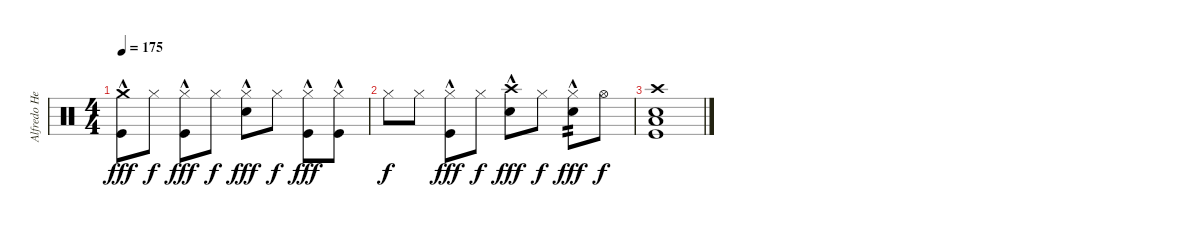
\track ("Alfredo Hernández - Drums" "Alfredo He") {instrument percussion}
\staff {score}
\articulation defaults
\ts (4 4)
\tempo 175
\clef neutral
\ks c
("Crash medium (hit)" "Kick (hit)"{hac}).8{dy fff} "Hi-Hat (closed)".8{dy f} ("Hi-Hat (closed)" "Kick (hit)"{hac}).8{dy fff} "Hi-Hat (closed)".8{dy f} ("Hi-Hat (closed)" "Snare (hit) 2"{hac}).8{dy fff} "Hi-Hat (closed)".8{dy f} ("Hi-Hat (closed)" "Kick (hit)"{hac}).8{dy fff} ("Hi-Hat (closed)" "Kick (hit)"{hac}).8 |
"Hi-Hat (closed)".8{dy f} "Hi-Hat (closed)".8 ("Hi-Hat (closed)" "Kick (hit)"{hac}).8{dy fff} "Hi-Hat (closed)".8{dy f} ("Crash high (hit)" "Snare (hit) 2"{hac}).8{dy fff} "Hi-Hat (closed)".8{dy f} ("Hi-Hat (closed)" "Snare (hit) 2"{hac}).8{tp 2 dy fff} "Hi-Hat (open)".8{dy f} |
("Crash high (hit)" "Snare (hit) 2" "Low Tom (hit)" "Kick (hit)").1
